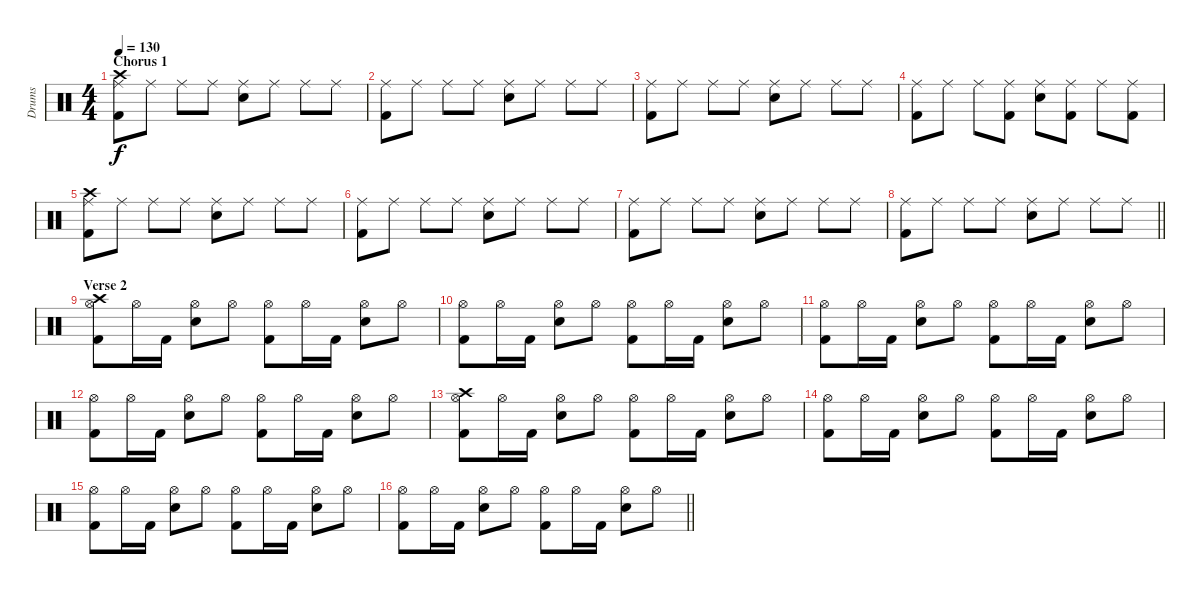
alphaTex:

\track ("Drums" "Drums") {instrument percussion}
\staff {score}
\articulation defaults
\ts (4 4)
\section ("" "Chorus 1")
\tempo 130
\clef neutral
\ks c
("Ride (middle)" "Crash high (hit)" "Kick (hit) 2").8{dy f} "Ride (middle)".8 "Ride (middle)".8 "Ride (middle)".8 ("Ride (middle)" "Snare (hit) 2").8 "Ride (middle)".8 "Ride (middle)".8 "Ride (middle)".8 |
("Ride (middle)" "Kick (hit) 2").8 "Ride (middle)".8 "Ride (middle)".8 "Ride (middle)".8 ("Ride (middle)" "Snare (hit) 2").8 "Ride (middle)".8 "Ride (middle)".8 "Ride (middle)".8 |
("Ride (middle)" "Kick (hit) 2").8 "Ride (middle)".8 "Ride (middle)".8 "Ride (middle)".8 ("Ride (middle)" "Snare (hit) 2").8 "Ride (middle)".8 "Ride (middle)".8 "Ride (middle)".8 |
("Ride (middle)" "Kick (hit) 2").8 "Ride (middle)".8 "Ride (middle)".8 ("Ride (middle)" "Kick (hit) 2").8 ("Ride (middle)" "Snare (hit) 2").8 ("Ride (middle)" "Kick (hit) 2").8 "Ride (middle)".8 ("Ride (middle)" "Kick (hit) 2").8 |
("Ride (middle)" "Crash high (hit)" "Kick (hit) 2").8 "Ride (middle)".8 "Ride (middle)".8 "Ride (middle)".8 ("Ride (middle)" "Snare (hit) 2").8 "Ride (middle)".8 "Ride (middle)".8 "Ride (middle)".8 |
("Ride (middle)" "Kick (hit) 2").8 "Ride (middle)".8 "Ride (middle)".8 "Ride (middle)".8 ("Ride (middle)" "Snare (hit) 2").8 "Ride (middle)".8 "Ride (middle)".8 "Ride (middle)".8 |
("Ride (middle)" "Kick (hit) 2").8 "Ride (middle)".8 "Ride (middle)".8 "Ride (middle)".8 ("Ride (middle)" "Snare (hit) 2").8 "Ride (middle)".8 "Ride (middle)".8 "Ride (middle)".8 |
\barLineRight lightlight
("Ride (middle)" "Kick (hit) 2").8 "Ride (middle)".8 "Ride (middle)".8 "Ride (middle)".8 ("Ride (middle)" "Snare (hit) 2").8 "Ride (middle)".8 "Ride (middle)".8 "Ride (middle)".8 |
\section ("" "Verse 2")
("Hi-Hat (open)" "Crash high (hit)" "Kick (hit) 2").8 "Hi-Hat (open)".16 "Kick (hit) 2".16 ("Hi-Hat (open)" "Snare (hit) 2").8 "Hi-Hat (open)".8 ("Hi-Hat (open)" "Kick (hit) 2").8 "Hi-Hat (open)".16 "Kick (hit) 2".16 ("Hi-Hat (open)" "Snare (hit) 2").8 "Hi-Hat (open)".8 |
("Hi-Hat (open)" "Kick (hit) 2").8 "Hi-Hat (open)".16 "Kick (hit) 2".16 ("Hi-Hat (open)" "Snare (hit) 2").8 "Hi-Hat (open)".8 ("Hi-Hat (open)" "Kick (hit) 2").8 "Hi-Hat (open)".16 "Kick (hit) 2".16 ("Hi-Hat (open)" "Snare (hit) 2").8 "Hi-Hat (open)".8 |
("Hi-Hat (open)" "Kick (hit) 2").8 "Hi-Hat (open)".16 "Kick (hit) 2".16 ("Hi-Hat (open)" "Snare (hit) 2").8 "Hi-Hat (open)".8 ("Hi-Hat (open)" "Kick (hit) 2").8 "Hi-Hat (open)".16 "Kick (hit) 2".16 ("Hi-Hat (open)" "Snare (hit) 2").8 "Hi-Hat (open)".8 |
("Hi-Hat (open)" "Kick (hit) 2").8 "Hi-Hat (open)".16 "Kick (hit) 2".16 ("Hi-Hat (open)" "Snare (hit) 2").8 "Hi-Hat (open)".8 ("Hi-Hat (open)" "Kick (hit) 2").8 "Hi-Hat (open)".16 "Kick (hit) 2".16 ("Hi-Hat (open)" "Snare (hit) 2").8 "Hi-Hat (open)".8 |
("Hi-Hat (open)" "Crash high (hit)" "Kick (hit) 2").8 "Hi-Hat (open)".16 "Kick (hit) 2".16 ("Hi-Hat (open)" "Snare (hit) 2").8 "Hi-Hat (open)".8 ("Hi-Hat (open)" "Kick (hit) 2").8 "Hi-Hat (open)".16 "Kick (hit) 2".16 ("Hi-Hat (open)" "Snare (hit) 2").8 "Hi-Hat (open)".8 |
("Hi-Hat (open)" "Kick (hit) 2").8 "Hi-Hat (open)".16 "Kick (hit) 2".16 ("Hi-Hat (open)" "Snare (hit) 2").8 "Hi-Hat (open)".8 ("Hi-Hat (open)" "Kick (hit) 2").8 "Hi-Hat (open)".16 "Kick (hit) 2".16 ("Hi-Hat (open)" "Snare (hit) 2").8 "Hi-Hat (open)".8 |
("Hi-Hat (open)" "Kick (hit) 2").8 "Hi-Hat (open)".16 "Kick (hit) 2".16 ("Hi-Hat (open)" "Snare (hit) 2").8 "Hi-Hat (open)".8 ("Hi-Hat (open)" "Kick (hit) 2").8 "Hi-Hat (open)".16 "Kick (hit) 2".16 ("Hi-Hat (open)" "Snare (hit) 2").8 "Hi-Hat (open)".8 |
\barLineRight lightlight
("Hi-Hat (open)" "Kick (hit) 2").8 "Hi-Hat (open)".16 "Kick (hit) 2".16 ("Hi-Hat (open)" "Snare (hit) 2").8 "Hi-Hat (open)".8 ("Hi-Hat (open)" "Kick (hit) 2").8 "Hi-Hat (open)".16 "Kick (hit) 2".16 ("Hi-Hat (open)" "Snare (hit) 2").8 "Hi-Hat (open)".8
